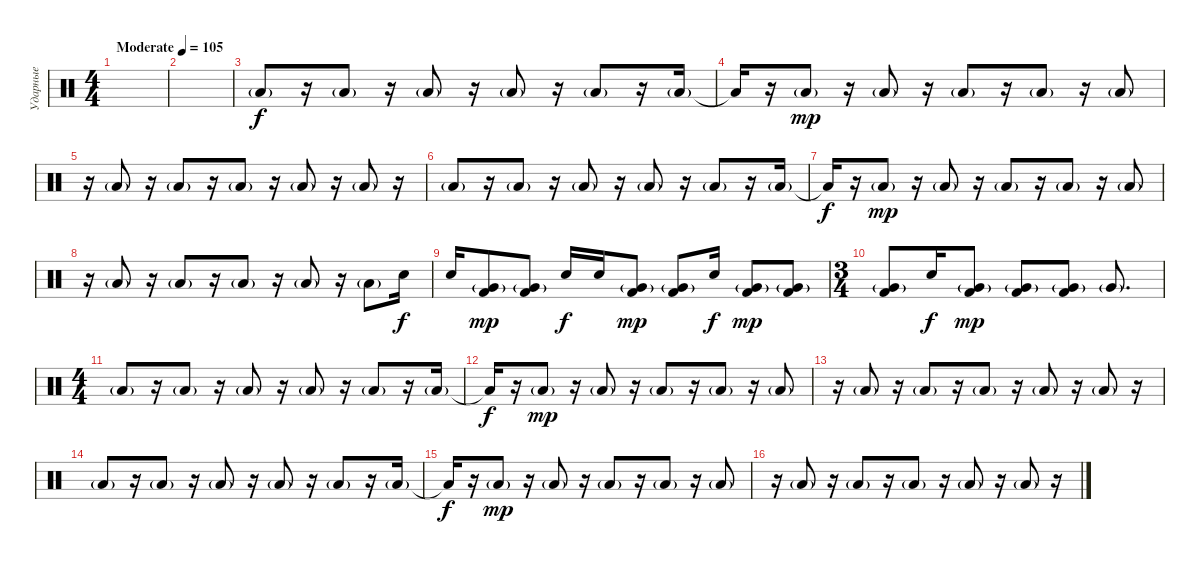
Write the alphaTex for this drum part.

\track ("Ударные" "Ударные") {instrument percussion}
\staff {score}
\articulation defaults
\ts (4 4)
\tempo (105 "Moderate")
\clef neutral
\ks c
|
|
"Low Floor Tom (hit)"{g}.8 r.16 "Low Floor Tom (hit)"{g}.8 r.16 "Low Floor Tom (hit)"{g}.8 r.16 "Low Floor Tom (hit)"{g}.8 r.16 "Low Floor Tom (hit)"{g}.8 r.16 "Low Floor Tom (hit)"{g}.16 |
"Low Floor Tom (hit)"{t}.16{dy f} r.16 "Low Floor Tom (hit)"{g}.8{dy mp} r.16 "Low Floor Tom (hit)"{g}.8 r.16 "Low Floor Tom (hit)"{g}.8 r.16 "Low Floor Tom (hit)"{g}.8 r.16 "Low Floor Tom (hit)"{g}.8 |
r.16 "Low Floor Tom (hit)"{g}.8 r.16 "Low Floor Tom (hit)"{g}.8 r.16 "Low Floor Tom (hit)"{g}.8 r.16 "Low Floor Tom (hit)"{g}.8 r.16 "Low Floor Tom (hit)"{g}.8 r.16 |
"Low Floor Tom (hit)"{g}.8 r.16 "Low Floor Tom (hit)"{g}.8 r.16 "Low Floor Tom (hit)"{g}.8 r.16 "Low Floor Tom (hit)"{g}.8 r.16 "Low Floor Tom (hit)"{g}.8 r.16 "Low Floor Tom (hit)"{g}.16 |
"Low Floor Tom (hit)"{t}.16{dy f} r.16 "Low Floor Tom (hit)"{g}.8{dy mp} r.16 "Low Floor Tom (hit)"{g}.8 r.16 "Low Floor Tom (hit)"{g}.8 r.16 "Low Floor Tom (hit)"{g}.8 r.16 "Low Floor Tom (hit)"{g}.8 |
r.16 "Low Floor Tom (hit)"{g}.8 r.16 "Low Floor Tom (hit)"{g}.8 r.16 "Low Floor Tom (hit)"{g}.8 r.16 "Low Floor Tom (hit)"{g}.8 r.16 "Low Floor Tom (hit)"{g}.8 "Electric Snare (hit)".16{dy f} |
"Electric Snare (hit)".16 ("Kick (hit) 2" "Very Low Tom (hit)"{g}).8{dy mp} ("Kick (hit) 2" "Very Low Tom (hit)"{g}).8 "Electric Snare (hit)".16{dy f} "Electric Snare (hit)".16 ("Kick (hit) 2" "Very Low Tom (hit)"{g}).8{dy mp} ("Kick (hit) 2" "Very Low Tom (hit)"{g}).8 "Electric Snare (hit)".16{dy f} ("Kick (hit) 2" "Very Low Tom (hit)"{g}).8{dy mp} ("Kick (hit) 2" "Very Low Tom (hit)"{g}).8 |
\ts (3 4)
("Kick (hit) 2" "Very Low Tom (hit)"{g}).8 "Electric Snare (hit)".16{dy f} ("Kick (hit) 2" "Very Low Tom (hit)"{g}).8{dy mp} ("Kick (hit) 2" "Very Low Tom (hit)"{g}).8 ("Kick (hit) 2" "Very Low Tom (hit)"{g}).8 "Very Low Tom (hit)"{g}.8{d} |
\ts (4 4)
"Low Floor Tom (hit)"{g}.8 r.16 "Low Floor Tom (hit)"{g}.8 r.16 "Low Floor Tom (hit)"{g}.8 r.16 "Low Floor Tom (hit)"{g}.8 r.16 "Low Floor Tom (hit)"{g}.8 r.16 "Low Floor Tom (hit)"{g}.16 |
"Low Floor Tom (hit)"{t}.16{dy f} r.16 "Low Floor Tom (hit)"{g}.8{dy mp} r.16 "Low Floor Tom (hit)"{g}.8 r.16 "Low Floor Tom (hit)"{g}.8 r.16 "Low Floor Tom (hit)"{g}.8 r.16 "Low Floor Tom (hit)"{g}.8 |
r.16 "Low Floor Tom (hit)"{g}.8 r.16 "Low Floor Tom (hit)"{g}.8 r.16 "Low Floor Tom (hit)"{g}.8 r.16 "Low Floor Tom (hit)"{g}.8 r.16 "Low Floor Tom (hit)"{g}.8 r.16 |
"Low Floor Tom (hit)"{g}.8 r.16 "Low Floor Tom (hit)"{g}.8 r.16 "Low Floor Tom (hit)"{g}.8 r.16 "Low Floor Tom (hit)"{g}.8 r.16 "Low Floor Tom (hit)"{g}.8 r.16 "Low Floor Tom (hit)"{g}.16 |
"Low Floor Tom (hit)"{t}.16{dy f} r.16 "Low Floor Tom (hit)"{g}.8{dy mp} r.16 "Low Floor Tom (hit)"{g}.8 r.16 "Low Floor Tom (hit)"{g}.8 r.16 "Low Floor Tom (hit)"{g}.8 r.16 "Low Floor Tom (hit)"{g}.8 |
r.16 "Low Floor Tom (hit)"{g}.8 r.16 "Low Floor Tom (hit)"{g}.8 r.16 "Low Floor Tom (hit)"{g}.8 r.16 "Low Floor Tom (hit)"{g}.8 r.16 "Low Floor Tom (hit)"{g}.8 r.16
